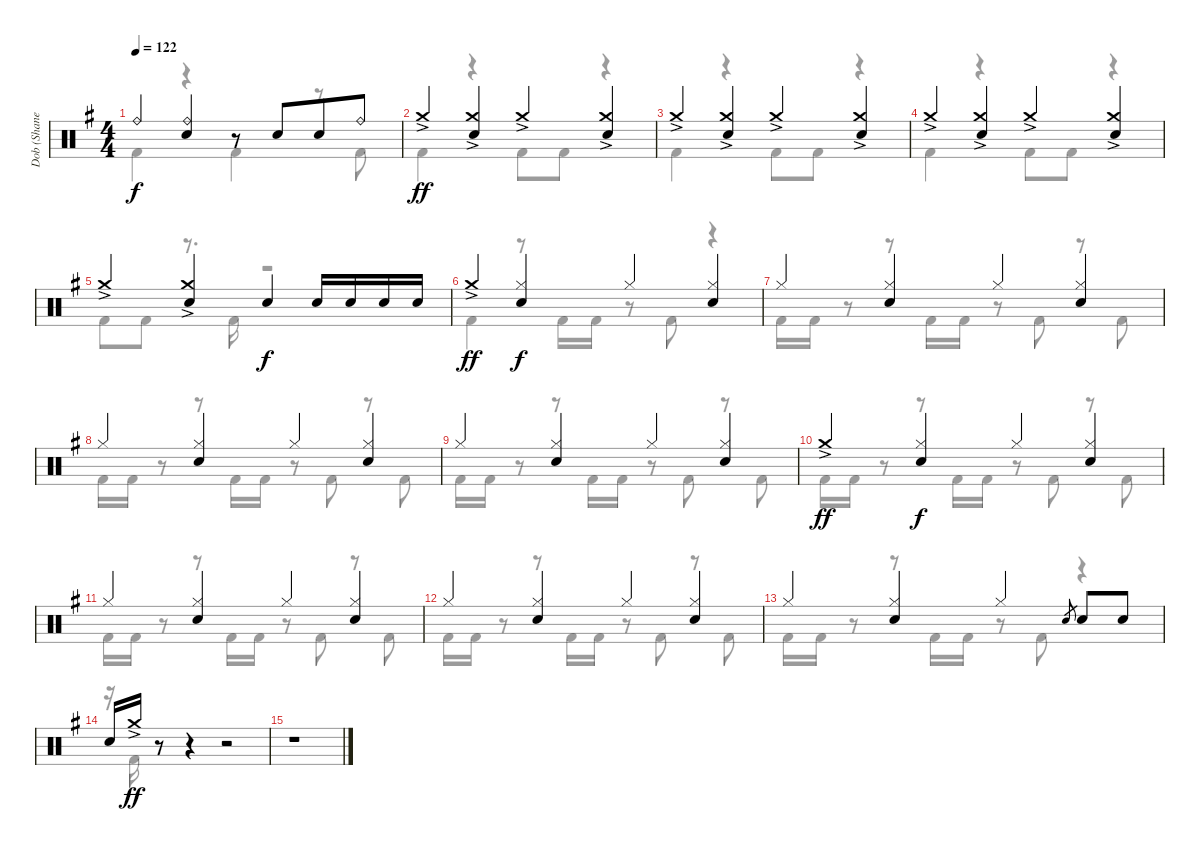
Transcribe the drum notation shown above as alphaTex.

\track ("Dob (Shane Gaalaas)" "Dob (Shane") {instrument percussion}
\staff {score}
\articulation defaults
\voice
\ts (4 4)
\tempo 122
\clef neutral
\ks g "Ride (bell)".4{dy f}
("Ride (bell)" "Electric Snare (hit)").4 r.8 "Electric Snare (hit)".8{beam merge} "Electric Snare (hit)".8 "Ride (bell)".8 |
"Crash medium (hit)"{ac}.4{dy ff} ("Crash medium (hit)"{ac} "Electric Snare (hit)").4 "Crash medium (hit)"{ac}.4 ("Crash medium (hit)"{ac} "Electric Snare (hit)").4 |
"Crash medium (hit)"{ac}.4 ("Crash medium (hit)"{ac} "Electric Snare (hit)").4 "Crash medium (hit)"{ac}.4 ("Crash medium (hit)"{ac} "Electric Snare (hit)").4 |
"Crash medium (hit)"{ac}.4 ("Crash medium (hit)"{ac} "Electric Snare (hit)").4 "Crash medium (hit)"{ac}.4 ("Crash medium (hit)"{ac} "Electric Snare (hit)").4 |
"Crash medium (hit)"{ac}.4 ("Crash medium (hit)"{ac} "Electric Snare (hit)").4 "Electric Snare (hit)".4{dy f} "Electric Snare (hit)".16 "Electric Snare (hit)".16 "Electric Snare (hit)".16 "Electric Snare (hit)".16 |
"Crash medium (hit)"{ac}.4{dy ff} ("Hi-Hat (closed)" "Electric Snare (hit)").4{dy f} "Hi-Hat (closed)".4 ("Hi-Hat (closed)" "Electric Snare (hit)").4 |
"Hi-Hat (closed)".4 ("Hi-Hat (closed)" "Electric Snare (hit)").4 "Hi-Hat (closed)".4 ("Hi-Hat (closed)" "Electric Snare (hit)").4 |
"Hi-Hat (closed)".4 ("Hi-Hat (closed)" "Electric Snare (hit)").4 "Hi-Hat (closed)".4 ("Hi-Hat (closed)" "Electric Snare (hit)").4 |
"Hi-Hat (closed)".4 ("Hi-Hat (closed)" "Electric Snare (hit)").4 "Hi-Hat (closed)".4 ("Hi-Hat (closed)" "Electric Snare (hit)").4 |
"Crash medium (hit)"{ac}.4{dy ff} ("Hi-Hat (closed)" "Electric Snare (hit)").4{dy f} "Hi-Hat (closed)".4 ("Hi-Hat (closed)" "Electric Snare (hit)").4 |
"Hi-Hat (closed)".4 ("Hi-Hat (closed)" "Electric Snare (hit)").4 "Hi-Hat (closed)".4 ("Hi-Hat (closed)" "Electric Snare (hit)").4 |
"Hi-Hat (closed)".4 ("Hi-Hat (closed)" "Electric Snare (hit)").4 "Hi-Hat (closed)".4 ("Hi-Hat (closed)" "Electric Snare (hit)").4 |
"Hi-Hat (closed)".4 ("Hi-Hat (closed)" "Electric Snare (hit)").4 "Hi-Hat (closed)".4 "Electric Snare (hit)"{h}.8{gr} "Electric Snare (hit)".8 "Electric Snare (hit)".8 |
"Electric Snare (hit)".16 "Crash medium (hit)"{ac}.16{dy ff} r.8 r.4 r.2 |
r.1 |
\voice
\clef neutral
\ottava regular
\simile none
\ks g "Kick (hit) 2".4{dy f}
r.4 "Kick (hit) 2".4 r.8 "Kick (hit) 2".8 |
"Kick (hit) 2".4 r.4 "Kick (hit) 2".8 "Kick (hit) 2".8 r.4 |
"Kick (hit) 2".4 r.4 "Kick (hit) 2".8 "Kick (hit) 2".8 r.4 |
"Kick (hit) 2".4 r.4 "Kick (hit) 2".8 "Kick (hit) 2".8 r.4 |
"Kick (hit) 2".8 "Kick (hit) 2".8 r.8{d} "Kick (hit) 2".16 r.2 |
"Kick (hit) 2".4 r.8 "Kick (hit) 2".16 "Kick (hit) 2".16 r.8 "Kick (hit) 2".8 r.4 |
"Kick (hit) 2".16 "Kick (hit) 2".16 r.8 r.8 "Kick (hit) 2".16 "Kick (hit) 2".16 r.8 "Kick (hit) 2".8 r.8 "Kick (hit) 2".8 |
"Kick (hit) 2".16 "Kick (hit) 2".16 r.8 r.8 "Kick (hit) 2".16 "Kick (hit) 2".16 r.8 "Kick (hit) 2".8 r.8 "Kick (hit) 2".8 |
"Kick (hit) 2".16 "Kick (hit) 2".16 r.8 r.8 "Kick (hit) 2".16 "Kick (hit) 2".16 r.8 "Kick (hit) 2".8 r.8 "Kick (hit) 2".8 |
"Kick (hit) 2".16 "Kick (hit) 2".16 r.8 r.8 "Kick (hit) 2".16 "Kick (hit) 2".16 r.8 "Kick (hit) 2".8 r.8 "Kick (hit) 2".8 |
"Kick (hit) 2".16 "Kick (hit) 2".16 r.8 r.8 "Kick (hit) 2".16 "Kick (hit) 2".16 r.8 "Kick (hit) 2".8 r.8 "Kick (hit) 2".8 |
"Kick (hit) 2".16 "Kick (hit) 2".16 r.8 r.8 "Kick (hit) 2".16 "Kick (hit) 2".16 r.8 "Kick (hit) 2".8 r.8 "Kick (hit) 2".8 |
"Kick (hit) 2".16 "Kick (hit) 2".16 r.8 r.8 "Kick (hit) 2".16 "Kick (hit) 2".16 r.8 "Kick (hit) 2".8 r.4 |
r.16 "Kick (hit) 2".16 r.8 r.4 r.2 |
r.1 |
